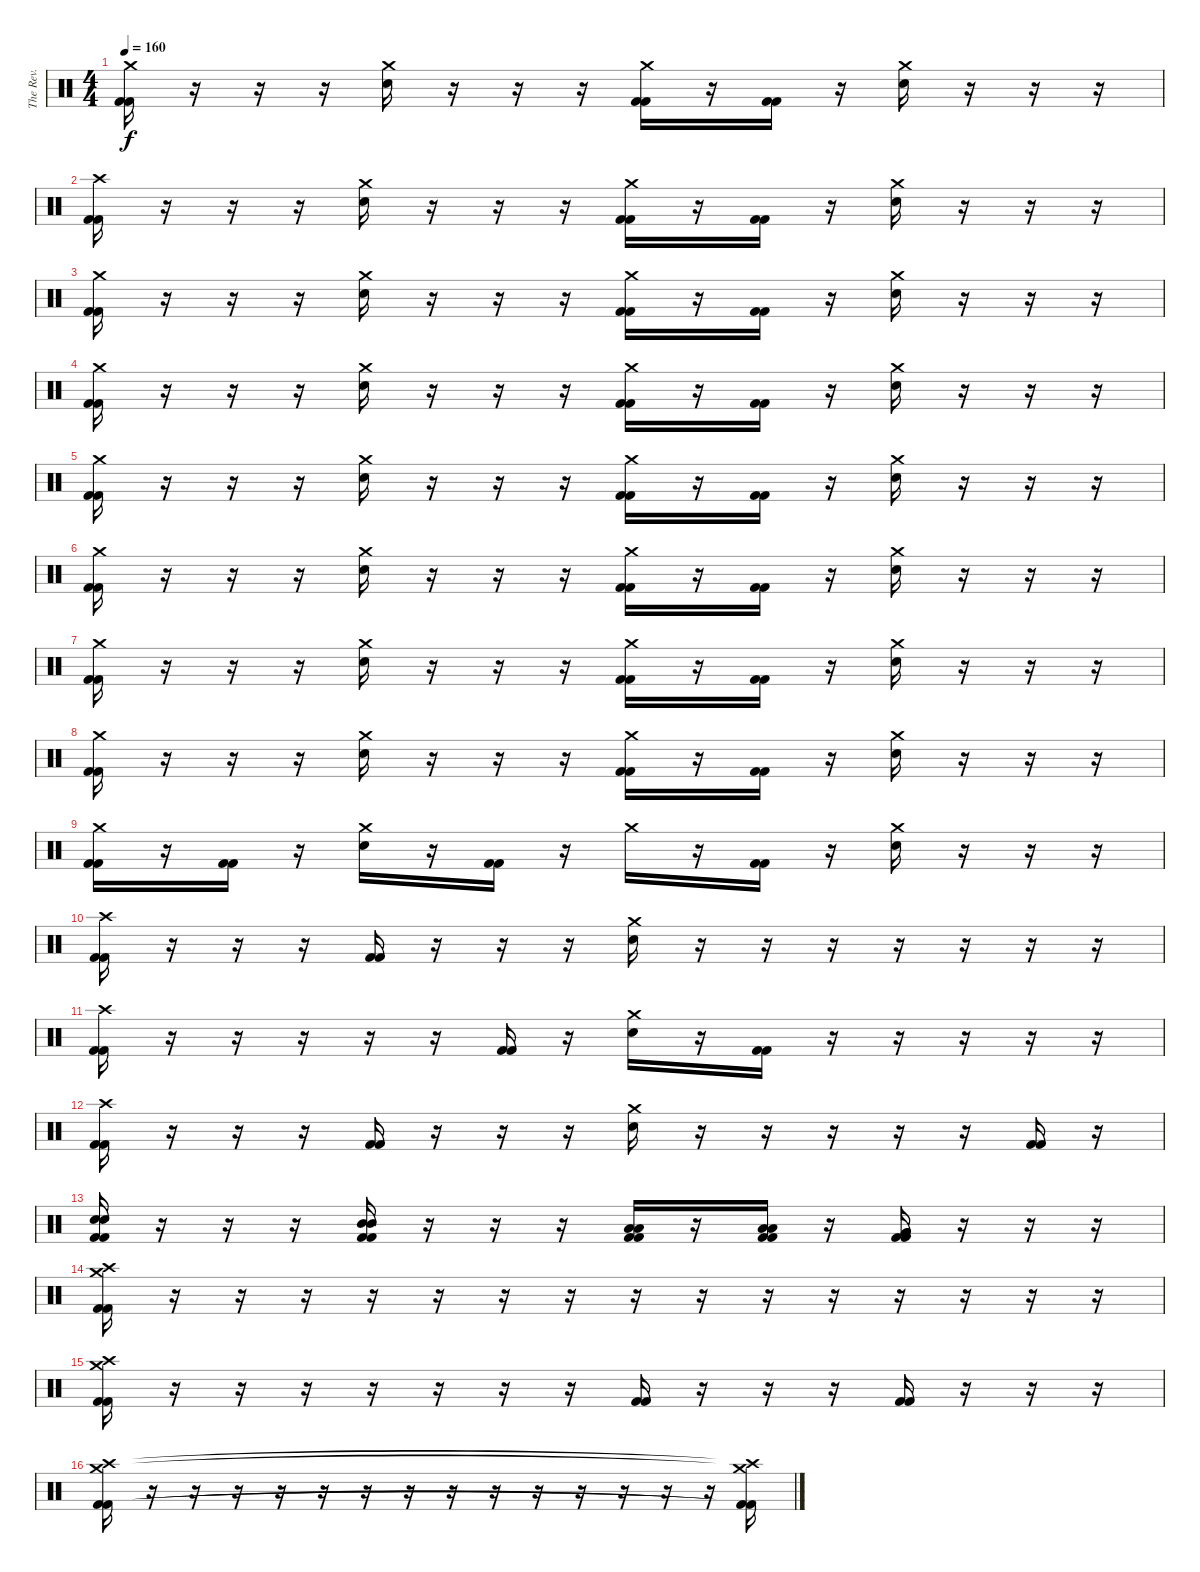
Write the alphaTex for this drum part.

\track ("The Rev." "The Rev.") {instrument percussion}
\staff {score}
\articulation defaults
\ts (4 4)
\tempo 160
\clef neutral
\ks c
("Crash medium (hit)" "Kick (hit) 2" "Kick (hit) 2").16{dy f} r.16 r.16 r.16 ("Crash medium (hit)" "Electric Snare (hit)").16 r.16 r.16 r.16 ("Crash medium (hit)" "Kick (hit) 2" "Kick (hit) 2").16 r.16 ("Kick (hit) 2" "Kick (hit) 2").16 r.16 ("Crash medium (hit)" "Electric Snare (hit)").16 r.16 r.16 r.16 |
("Crash high (hit)" "Kick (hit) 2" "Kick (hit) 2").16 r.16 r.16 r.16 ("Crash medium (hit)" "Electric Snare (hit)").16 r.16 r.16 r.16 ("Crash medium (hit)" "Kick (hit) 2" "Kick (hit) 2").16 r.16 ("Kick (hit) 2" "Kick (hit) 2").16 r.16 ("Crash medium (hit)" "Electric Snare (hit)").16 r.16 r.16 r.16 |
("Crash medium (hit)" "Kick (hit) 2" "Kick (hit) 2").16 r.16 r.16 r.16 ("Crash medium (hit)" "Electric Snare (hit)").16 r.16 r.16 r.16 ("Crash medium (hit)" "Kick (hit) 2" "Kick (hit) 2").16 r.16 ("Kick (hit) 2" "Kick (hit) 2").16 r.16 ("Crash medium (hit)" "Electric Snare (hit)").16 r.16 r.16 r.16 |
("Crash medium (hit)" "Kick (hit) 2" "Kick (hit) 2").16 r.16 r.16 r.16 ("Crash medium (hit)" "Electric Snare (hit)").16 r.16 r.16 r.16 ("Crash medium (hit)" "Kick (hit) 2" "Kick (hit) 2").16 r.16 ("Kick (hit) 2" "Kick (hit) 2").16 r.16 ("Crash medium (hit)" "Electric Snare (hit)").16 r.16 r.16 r.16 |
("Crash medium (hit)" "Kick (hit) 2" "Kick (hit) 2").16 r.16 r.16 r.16 ("Crash medium (hit)" "Electric Snare (hit)").16 r.16 r.16 r.16 ("Crash medium (hit)" "Kick (hit) 2" "Kick (hit) 2").16 r.16 ("Kick (hit) 2" "Kick (hit) 2").16 r.16 ("Crash medium (hit)" "Electric Snare (hit)").16 r.16 r.16 r.16 |
("Crash medium (hit)" "Kick (hit) 2" "Kick (hit) 2").16 r.16 r.16 r.16 ("Crash medium (hit)" "Electric Snare (hit)").16 r.16 r.16 r.16 ("Crash medium (hit)" "Kick (hit) 2" "Kick (hit) 2").16 r.16 ("Kick (hit) 2" "Kick (hit) 2").16 r.16 ("Crash medium (hit)" "Electric Snare (hit)").16 r.16 r.16 r.16 |
("Crash medium (hit)" "Kick (hit) 2" "Kick (hit) 2").16 r.16 r.16 r.16 ("Crash medium (hit)" "Electric Snare (hit)").16 r.16 r.16 r.16 ("Crash medium (hit)" "Kick (hit) 2" "Kick (hit) 2").16 r.16 ("Kick (hit) 2" "Kick (hit) 2").16 r.16 ("Crash medium (hit)" "Electric Snare (hit)").16 r.16 r.16 r.16 |
("Crash medium (hit)" "Kick (hit) 2" "Kick (hit) 2").16 r.16 r.16 r.16 ("Crash medium (hit)" "Electric Snare (hit)").16 r.16 r.16 r.16 ("Crash medium (hit)" "Kick (hit) 2" "Kick (hit) 2").16 r.16 ("Kick (hit) 2" "Kick (hit) 2").16 r.16 ("Crash medium (hit)" "Electric Snare (hit)").16 r.16 r.16 r.16 |
("Crash medium (hit)" "Kick (hit) 2" "Kick (hit) 2").16 r.16 ("Kick (hit) 2" "Kick (hit) 2").16 r.16 ("Crash medium (hit)" "Electric Snare (hit)").16 r.16 ("Kick (hit) 2" "Kick (hit) 2").16 r.16 "Crash medium (hit)".16 r.16 ("Kick (hit) 2" "Kick (hit) 2").16 r.16 ("Crash medium (hit)" "Electric Snare (hit)").16 r.16 r.16 r.16 |
("Crash high (hit)" "Kick (hit) 2" "Kick (hit) 2").16 r.16 r.16 r.16 ("Kick (hit) 2" "Kick (hit) 2").16 r.16 r.16 r.16 ("Crash medium (hit)" "Electric Snare (hit)").16 r.16 r.16 r.16 r.16 r.16 r.16 r.16 |
("Crash high (hit)" "Kick (hit) 2" "Kick (hit) 2").16 r.16 r.16 r.16 r.16 r.16 ("Kick (hit) 2" "Kick (hit) 2").16 r.16 ("Crash medium (hit)" "Electric Snare (hit)").16 r.16 ("Kick (hit) 2" "Kick (hit) 2").16 r.16 r.16 r.16 r.16 r.16 |
("Crash high (hit)" "Kick (hit) 2" "Kick (hit) 2").16 r.16 r.16 r.16 ("Kick (hit) 2" "Kick (hit) 2").16 r.16 r.16 r.16 ("Crash medium (hit)" "Electric Snare (hit)").16 r.16 r.16 r.16 r.16 r.16 ("Kick (hit) 2" "Kick (hit) 2").16 r.16 |
("Electric Snare (hit)" "Electric Snare (hit)" "Kick (hit) 2" "Kick (hit) 2").16 r.16 r.16 r.16 ("Mid Tom (hit)" "Mid Tom (hit)" "Kick (hit) 2" "Kick (hit) 2").16 r.16 r.16 r.16 ("Low Tom (hit)" "Low Tom (hit)" "Kick (hit) 2" "Kick (hit) 2").16 r.16 ("Low Tom (hit)" "Low Tom (hit)" "Kick (hit) 2" "Kick (hit) 2").16 r.16 ("Very Low Tom (hit)" "Very Low Tom (hit)" "Kick (hit) 2" "Kick (hit) 2").16 r.16 r.16 r.16 |
("Crash high (hit)" "Crash medium (hit)" "Kick (hit) 2" "Kick (hit) 2").16 r.16 r.16 r.16 r.16 r.16 r.16 r.16 r.16 r.16 r.16 r.16 r.16 r.16 r.16 r.16 |
("Crash medium (hit)" "Crash high (hit)" "Kick (hit) 2" "Kick (hit) 2").16 r.16 r.16 r.16 r.16 r.16 r.16 r.16 ("Kick (hit) 2" "Kick (hit) 2").16 r.16 r.16 r.16 ("Kick (hit) 2" "Kick (hit) 2").16 r.16 r.16 r.16 |
("Crash high (hit)" "Crash medium (hit)" "Kick (hit) 2" "Kick (hit) 2").16 r.16 r.16 r.16 r.16 r.16 r.16 r.16 r.16 r.16 r.16 r.16 r.16 r.16 r.16 ("Crash high (hit)"{t} "Crash medium (hit)"{t} "Kick (hit) 2"{t} "Kick (hit) 2"{t}).16
